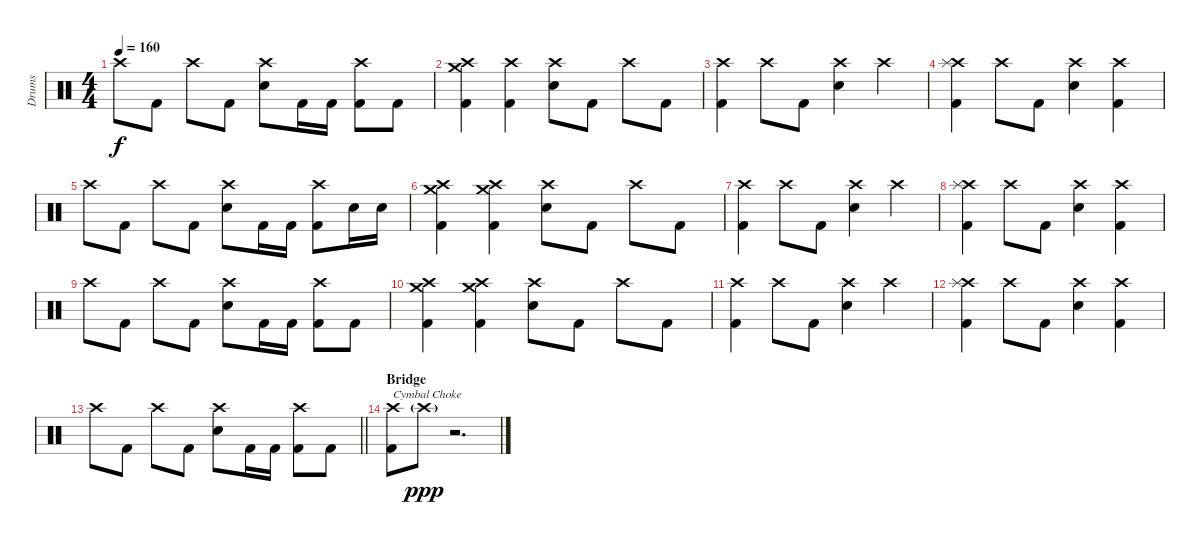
\track ("Drums" "Drums") {instrument percussion}
\staff {score}
\articulation defaults
\ts (4 4)
\tempo 160
\clef neutral
\ks c "Crash high (hit)".8{dy f} "Kick (hit) 2".8 "Crash high (hit)".8 "Kick (hit) 2".8
("Crash high (hit)" "Electric Snare (hit)").8 "Kick (hit) 2".16 "Kick (hit) 2".16 ("Crash high (hit)" "Kick (hit) 2").8 "Kick (hit) 2".8 |
("Crash high (hit)" "Crash medium (hit)" "Kick (hit) 2").4 ("Crash high (hit)" "Kick (hit) 2").4 ("Crash high (hit)" "Electric Snare (hit)").8 "Kick (hit) 2".8 "Crash high (hit)".8 "Kick (hit) 2".8 |
("Crash high (hit)" "Kick (hit) 2").4 "Crash high (hit)".8 "Kick (hit) 2".8 ("Crash high (hit)" "Electric Snare (hit)").4 "Crash high (hit)".4 |
("Crash high (hit)" "Splash (hit)" "Kick (hit) 2").4 "Crash high (hit)".8 "Kick (hit) 2".8 ("Crash high (hit)" "Electric Snare (hit)").4 ("Crash high (hit)" "Kick (hit) 2").4 |
"Crash high (hit)".8 "Kick (hit) 2".8 "Crash high (hit)".8 "Kick (hit) 2".8 ("Crash high (hit)" "Electric Snare (hit)").8 "Kick (hit) 2".16 "Kick (hit) 2".16 ("Crash high (hit)" "Kick (hit) 2").8 "Electric Snare (hit)".16 "Electric Snare (hit)".16 |
("Crash high (hit)" "Crash medium (hit)" "Kick (hit) 2").4 ("Crash high (hit)" "Crash medium (hit)" "Kick (hit) 2").4 ("Crash high (hit)" "Electric Snare (hit)").8 "Kick (hit) 2".8 "Crash high (hit)".8 "Kick (hit) 2".8 |
("Crash high (hit)" "Kick (hit) 2").4 "Crash high (hit)".8 "Kick (hit) 2".8 ("Crash high (hit)" "Electric Snare (hit)").4 "Crash high (hit)".4 |
("Crash high (hit)" "Splash (hit)" "Kick (hit) 2").4 "Crash high (hit)".8 "Kick (hit) 2".8 ("Crash high (hit)" "Electric Snare (hit)").4 ("Crash high (hit)" "Kick (hit) 2").4 |
"Crash high (hit)".8 "Kick (hit) 2".8 "Crash high (hit)".8 "Kick (hit) 2".8 ("Crash high (hit)" "Electric Snare (hit)").8 "Kick (hit) 2".16 "Kick (hit) 2".16 ("Crash high (hit)" "Kick (hit) 2").8 "Kick (hit) 2".8 |
("Crash high (hit)" "Crash medium (hit)" "Kick (hit) 2").4 ("Crash high (hit)" "Crash medium (hit)" "Kick (hit) 2").4 ("Crash high (hit)" "Electric Snare (hit)").8 "Kick (hit) 2".8 "Crash high (hit)".8 "Kick (hit) 2".8 |
("Crash high (hit)" "Kick (hit) 2").4 "Crash high (hit)".8 "Kick (hit) 2".8 ("Crash high (hit)" "Electric Snare (hit)").4 "Crash high (hit)".4 |
("Crash high (hit)" "Splash (hit)" "Kick (hit) 2").4 "Crash high (hit)".8 "Kick (hit) 2".8 ("Crash high (hit)" "Electric Snare (hit)").4 ("Crash high (hit)" "Kick (hit) 2").4 |
\barLineRight lightlight "Crash high (hit)".8 "Kick (hit) 2".8 "Crash high (hit)".8 "Kick (hit) 2".8
("Crash high (hit)" "Electric Snare (hit)").8 "Kick (hit) 2".16 "Kick (hit) 2".16 ("Crash high (hit)" "Kick (hit) 2").8 "Kick (hit) 2".8 |
\section ("" "Bridge")
("Crash high (hit)" "Kick (hit) 2").8{txt "Cymbal Choke"} "Crash high (hit)"{g}.8{dy ppp} r.2{d}
